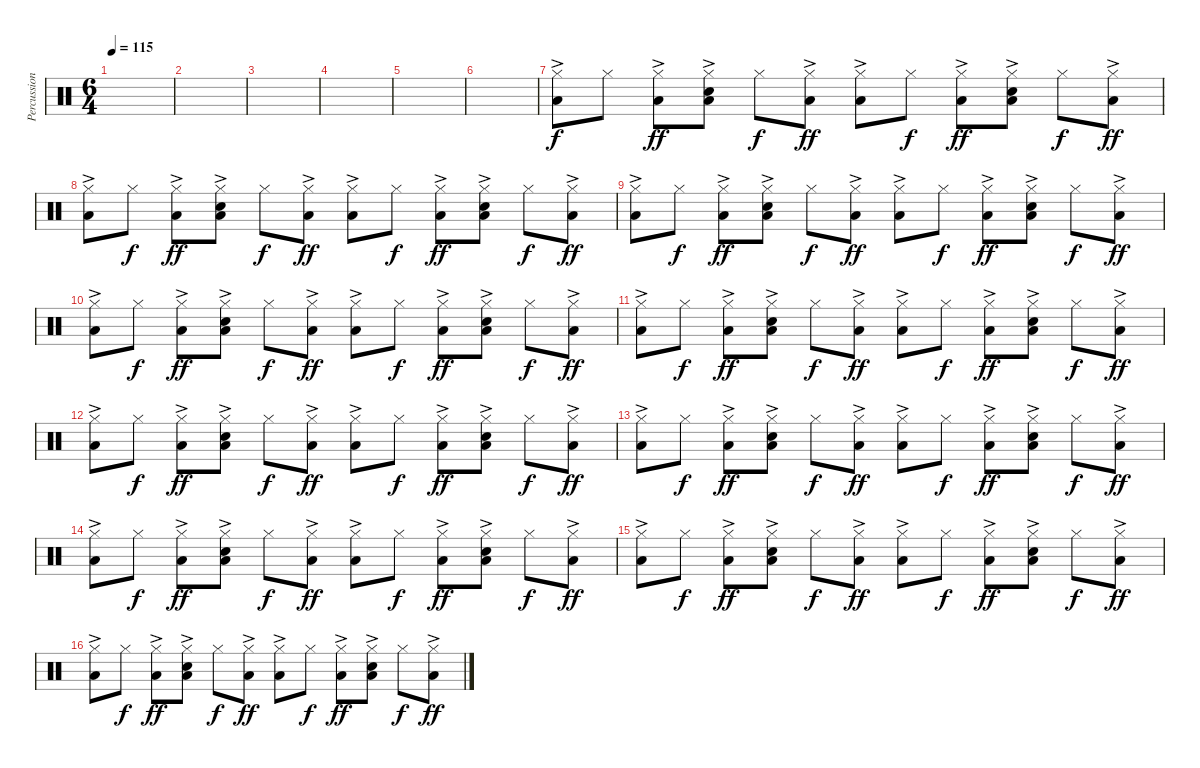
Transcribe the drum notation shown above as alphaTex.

\track ("Percussion" "Percussion") {instrument percussion}
\staff {score}
\articulation defaults
\ts (6 4)
\tempo 115
\clef neutral
\ks c
|
|
|
|
|
|
("Hi-Hat (closed)" "Low Floor Tom (hit)"{ac}).8 "Hi-Hat (closed)".8{dy f} ("Hi-Hat (closed)" "Low Floor Tom (hit)"{ac}).8{dy ff} ("Hi-Hat (closed)" "Electric Snare (hit)"{ac} "Low Floor Tom (hit)"{ac}).8 "Hi-Hat (closed)".8{dy f} ("Hi-Hat (closed)" "Low Floor Tom (hit)"{ac}).8{dy ff} ("Hi-Hat (closed)" "Low Floor Tom (hit)"{ac}).8 "Hi-Hat (closed)".8{dy f} ("Hi-Hat (closed)" "Low Floor Tom (hit)"{ac}).8{dy ff} ("Hi-Hat (closed)" "Electric Snare (hit)"{ac} "Low Floor Tom (hit)"{ac}).8 "Hi-Hat (closed)".8{dy f} ("Hi-Hat (closed)" "Low Floor Tom (hit)"{ac}).8{dy ff} |
("Hi-Hat (closed)" "Low Floor Tom (hit)"{ac}).8 "Hi-Hat (closed)".8{dy f} ("Hi-Hat (closed)" "Low Floor Tom (hit)"{ac}).8{dy ff} ("Hi-Hat (closed)" "Electric Snare (hit)"{ac} "Low Floor Tom (hit)"{ac}).8 "Hi-Hat (closed)".8{dy f} ("Hi-Hat (closed)" "Low Floor Tom (hit)"{ac}).8{dy ff} ("Hi-Hat (closed)" "Low Floor Tom (hit)"{ac}).8 "Hi-Hat (closed)".8{dy f} ("Hi-Hat (closed)" "Low Floor Tom (hit)"{ac}).8{dy ff} ("Hi-Hat (closed)" "Electric Snare (hit)"{ac} "Low Floor Tom (hit)"{ac}).8 "Hi-Hat (closed)".8{dy f} ("Hi-Hat (closed)" "Low Floor Tom (hit)"{ac}).8{dy ff} |
("Hi-Hat (closed)" "Low Floor Tom (hit)"{ac}).8 "Hi-Hat (closed)".8{dy f} ("Hi-Hat (closed)" "Low Floor Tom (hit)"{ac}).8{dy ff} ("Hi-Hat (closed)" "Electric Snare (hit)"{ac} "Low Floor Tom (hit)"{ac}).8 "Hi-Hat (closed)".8{dy f} ("Hi-Hat (closed)" "Low Floor Tom (hit)"{ac}).8{dy ff} ("Hi-Hat (closed)" "Low Floor Tom (hit)"{ac}).8 "Hi-Hat (closed)".8{dy f} ("Hi-Hat (closed)" "Low Floor Tom (hit)"{ac}).8{dy ff} ("Hi-Hat (closed)" "Electric Snare (hit)"{ac} "Low Floor Tom (hit)"{ac}).8 "Hi-Hat (closed)".8{dy f} ("Hi-Hat (closed)" "Low Floor Tom (hit)"{ac}).8{dy ff} |
("Hi-Hat (closed)" "Low Floor Tom (hit)"{ac}).8 "Hi-Hat (closed)".8{dy f} ("Hi-Hat (closed)" "Low Floor Tom (hit)"{ac}).8{dy ff} ("Hi-Hat (closed)" "Electric Snare (hit)"{ac} "Low Floor Tom (hit)"{ac}).8 "Hi-Hat (closed)".8{dy f} ("Hi-Hat (closed)" "Low Floor Tom (hit)"{ac}).8{dy ff} ("Hi-Hat (closed)" "Low Floor Tom (hit)"{ac}).8 "Hi-Hat (closed)".8{dy f} ("Hi-Hat (closed)" "Low Floor Tom (hit)"{ac}).8{dy ff} ("Hi-Hat (closed)" "Electric Snare (hit)"{ac} "Low Floor Tom (hit)"{ac}).8 "Hi-Hat (closed)".8{dy f} ("Hi-Hat (closed)" "Low Floor Tom (hit)"{ac}).8{dy ff} |
("Hi-Hat (closed)" "Low Floor Tom (hit)"{ac}).8 "Hi-Hat (closed)".8{dy f} ("Hi-Hat (closed)" "Low Floor Tom (hit)"{ac}).8{dy ff} ("Hi-Hat (closed)" "Electric Snare (hit)"{ac} "Low Floor Tom (hit)"{ac}).8 "Hi-Hat (closed)".8{dy f} ("Hi-Hat (closed)" "Low Floor Tom (hit)"{ac}).8{dy ff} ("Hi-Hat (closed)" "Low Floor Tom (hit)"{ac}).8 "Hi-Hat (closed)".8{dy f} ("Hi-Hat (closed)" "Low Floor Tom (hit)"{ac}).8{dy ff} ("Hi-Hat (closed)" "Electric Snare (hit)"{ac} "Low Floor Tom (hit)"{ac}).8 "Hi-Hat (closed)".8{dy f} ("Hi-Hat (closed)" "Low Floor Tom (hit)"{ac}).8{dy ff} |
("Hi-Hat (closed)" "Low Floor Tom (hit)"{ac}).8 "Hi-Hat (closed)".8{dy f} ("Hi-Hat (closed)" "Low Floor Tom (hit)"{ac}).8{dy ff} ("Hi-Hat (closed)" "Electric Snare (hit)"{ac} "Low Floor Tom (hit)"{ac}).8 "Hi-Hat (closed)".8{dy f} ("Hi-Hat (closed)" "Low Floor Tom (hit)"{ac}).8{dy ff} ("Hi-Hat (closed)" "Low Floor Tom (hit)"{ac}).8 "Hi-Hat (closed)".8{dy f} ("Hi-Hat (closed)" "Low Floor Tom (hit)"{ac}).8{dy ff} ("Hi-Hat (closed)" "Electric Snare (hit)"{ac} "Low Floor Tom (hit)"{ac}).8 "Hi-Hat (closed)".8{dy f} ("Hi-Hat (closed)" "Low Floor Tom (hit)"{ac}).8{dy ff} |
("Hi-Hat (closed)" "Low Floor Tom (hit)"{ac}).8 "Hi-Hat (closed)".8{dy f} ("Hi-Hat (closed)" "Low Floor Tom (hit)"{ac}).8{dy ff} ("Hi-Hat (closed)" "Electric Snare (hit)"{ac} "Low Floor Tom (hit)"{ac}).8 "Hi-Hat (closed)".8{dy f} ("Hi-Hat (closed)" "Low Floor Tom (hit)"{ac}).8{dy ff} ("Hi-Hat (closed)" "Low Floor Tom (hit)"{ac}).8 "Hi-Hat (closed)".8{dy f} ("Hi-Hat (closed)" "Low Floor Tom (hit)"{ac}).8{dy ff} ("Hi-Hat (closed)" "Electric Snare (hit)"{ac} "Low Floor Tom (hit)"{ac}).8 "Hi-Hat (closed)".8{dy f} ("Hi-Hat (closed)" "Low Floor Tom (hit)"{ac}).8{dy ff} |
("Hi-Hat (closed)" "Low Floor Tom (hit)"{ac}).8 "Hi-Hat (closed)".8{dy f} ("Hi-Hat (closed)" "Low Floor Tom (hit)"{ac}).8{dy ff} ("Hi-Hat (closed)" "Electric Snare (hit)"{ac} "Low Floor Tom (hit)"{ac}).8 "Hi-Hat (closed)".8{dy f} ("Hi-Hat (closed)" "Low Floor Tom (hit)"{ac}).8{dy ff} ("Hi-Hat (closed)" "Low Floor Tom (hit)"{ac}).8 "Hi-Hat (closed)".8{dy f} ("Hi-Hat (closed)" "Low Floor Tom (hit)"{ac}).8{dy ff} ("Hi-Hat (closed)" "Electric Snare (hit)"{ac} "Low Floor Tom (hit)"{ac}).8 "Hi-Hat (closed)".8{dy f} ("Hi-Hat (closed)" "Low Floor Tom (hit)"{ac}).8{dy ff} |
("Hi-Hat (closed)" "Low Floor Tom (hit)"{ac}).8 "Hi-Hat (closed)".8{dy f} ("Hi-Hat (closed)" "Low Floor Tom (hit)"{ac}).8{dy ff} ("Hi-Hat (closed)" "Electric Snare (hit)"{ac} "Low Floor Tom (hit)"{ac}).8 "Hi-Hat (closed)".8{dy f} ("Hi-Hat (closed)" "Low Floor Tom (hit)"{ac}).8{dy ff} ("Hi-Hat (closed)" "Low Floor Tom (hit)"{ac}).8 "Hi-Hat (closed)".8{dy f} ("Hi-Hat (closed)" "Low Floor Tom (hit)"{ac}).8{dy ff} ("Hi-Hat (closed)" "Electric Snare (hit)"{ac} "Low Floor Tom (hit)"{ac}).8 "Hi-Hat (closed)".8{dy f} ("Hi-Hat (closed)" "Low Floor Tom (hit)"{ac}).8{dy ff} |
("Hi-Hat (closed)" "Low Floor Tom (hit)"{ac}).8 "Hi-Hat (closed)".8{dy f} ("Hi-Hat (closed)" "Low Floor Tom (hit)"{ac}).8{dy ff} ("Hi-Hat (closed)" "Electric Snare (hit)"{ac} "Low Floor Tom (hit)"{ac}).8 "Hi-Hat (closed)".8{dy f} ("Hi-Hat (closed)" "Low Floor Tom (hit)"{ac}).8{dy ff} ("Hi-Hat (closed)" "Low Floor Tom (hit)"{ac}).8 "Hi-Hat (closed)".8{dy f} ("Hi-Hat (closed)" "Low Floor Tom (hit)"{ac}).8{dy ff} ("Hi-Hat (closed)" "Electric Snare (hit)"{ac} "Low Floor Tom (hit)"{ac}).8 "Hi-Hat (closed)".8{dy f} ("Hi-Hat (closed)" "Low Floor Tom (hit)"{ac}).8{dy ff}
